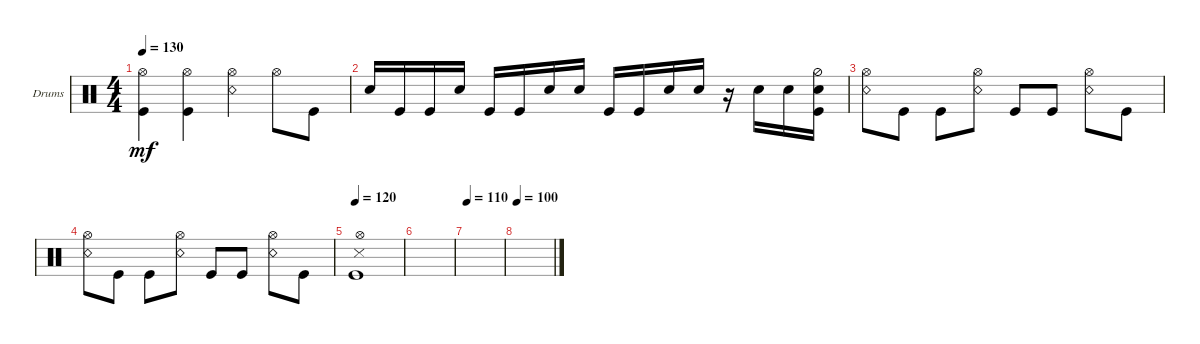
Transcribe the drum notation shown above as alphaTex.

\defaultSystemsLayout 4
\bracketExtendMode groupsimilarinstruments
\firstSystemTrackNameOrientation horizontal
\otherSystemsTrackNameOrientation horizontal
\track ("Drumkit" "Drums") {instrument percussion}
\staff {score}
\articulation defaults
\ts (4 4)
\tempo 130
\clef neutral
\ks c
("Kick (hit)" "Hi-Hat (open)").4{dy mf} ("Kick (hit)" "Hi-Hat (open)").4 ("Snare (rim shot)" "Hi-Hat (open)").4 "Hi-Hat (open)".8 "Kick (hit)".8 |
"Snare (hit) 2".16 "Kick (hit)".16 "Kick (hit)".16 "Snare (hit) 2".16 "Kick (hit)".16 "Kick (hit)".16 "Snare (hit) 2".16 "Snare (hit) 2".16 "Kick (hit)".16 "Kick (hit)".16 "Snare (hit) 2".16 "Snare (hit) 2".16 r.16 "Snare (hit) 2".16 "Snare (hit) 2".16 ("Snare (hit) 2" "Kick (hit)" "Hi-Hat (half)").16 |
("Snare (rim shot)" "Hi-Hat (open)").8 "Kick (hit)".8 "Kick (hit)".8 ("Snare (rim shot)" "Hi-Hat (open)").8 "Kick (hit)".8 "Kick (hit)".8 ("Snare (rim shot)" "Hi-Hat (open)").8 "Kick (hit)".8 |
("Snare (rim shot)" "Hi-Hat (open)").8 "Kick (hit)".8 "Kick (hit)".8 ("Snare (rim shot)" "Hi-Hat (open)").8 "Kick (hit)".8 "Kick (hit)".8 ("Snare (rim shot)" "Hi-Hat (open)").8 "Kick (hit)".8 |
\tempo 120
("Hi-Hat (open)" "Kick (hit)" "Snare (side stick) 3").1 |
|
\tempo 110
|
\tempo 100
